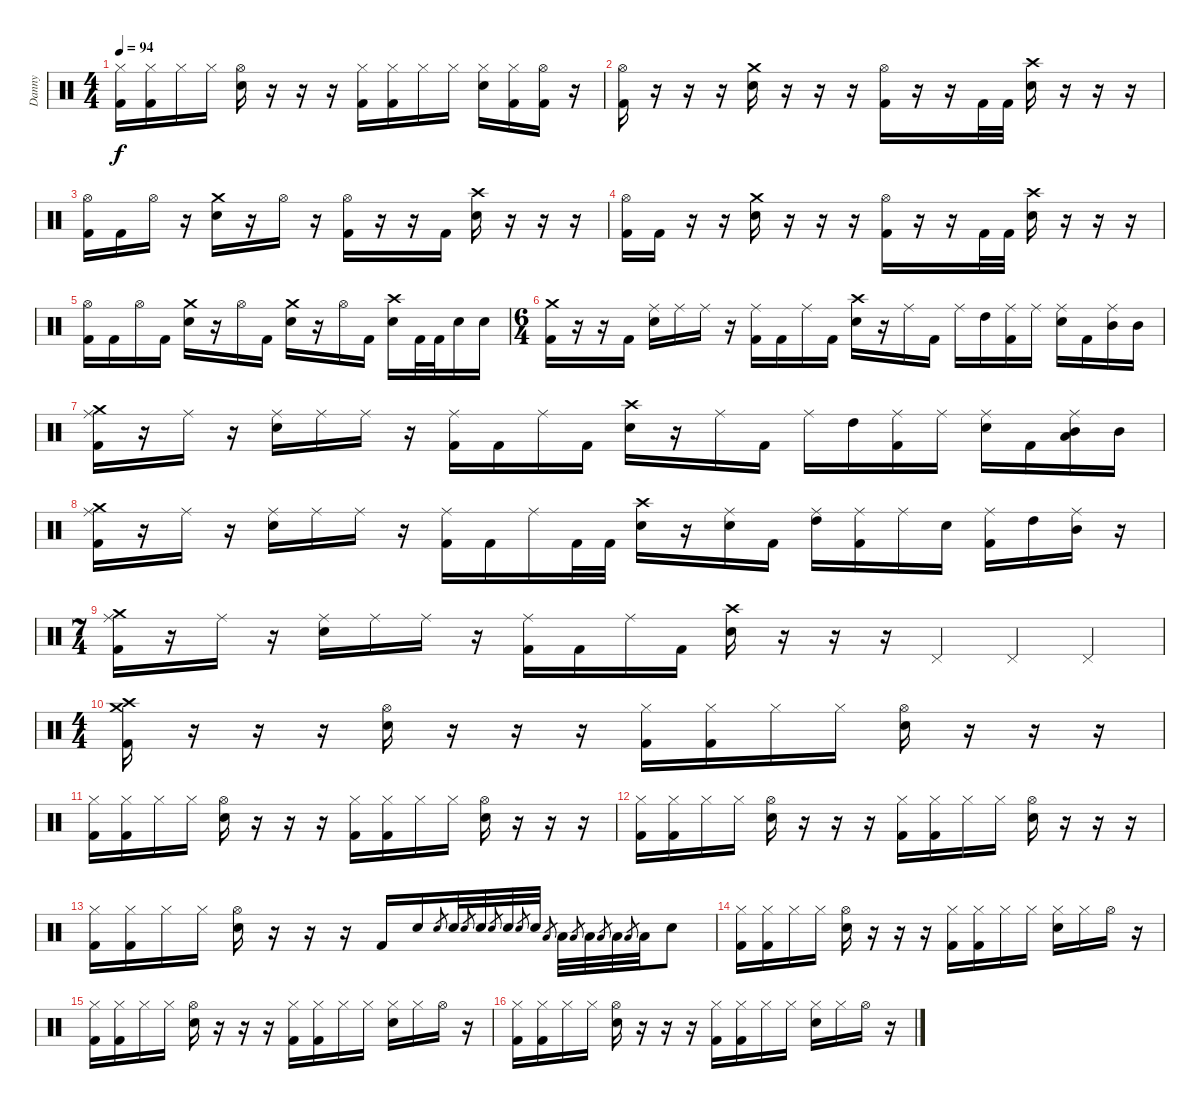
\track ("Danny" "Danny") {instrument percussion}
\staff {score}
\articulation defaults
\ts (4 4)
\tempo 94
\clef neutral
\ks c
("Hi-Hat (closed)" "Kick (hit) 2").16{dy f} ("Hi-Hat (closed)" "Kick (hit) 2").16 "Hi-Hat (closed)".16 "Hi-Hat (closed)".16 ("Hi-Hat (open)" "Electric Snare (hit)").16 r.16 r.16 r.16 ("Hi-Hat (closed)" "Kick (hit) 2").16 ("Hi-Hat (closed)" "Kick (hit) 2").16 "Hi-Hat (closed)".16 "Hi-Hat (closed)".16 ("Hi-Hat (closed)" "Electric Snare (hit)").16 ("Hi-Hat (closed)" "Kick (hit) 2").16 ("Hi-Hat (open)" "Kick (hit) 2").16 r.16 |
("Hi-Hat (open)" "Kick (hit) 2").16 r.16 r.16 r.16 ("Crash medium (hit)" "Electric Snare (hit)").16 r.16 r.16 r.16 ("Hi-Hat (open)" "Kick (hit) 2").16 r.16 r.16 "Kick (hit) 2".32 "Kick (hit) 2".32 ("Crash high (hit)" "Electric Snare (hit)").16 r.16 r.16 r.16 |
("Hi-Hat (open)" "Kick (hit) 2").16 "Kick (hit) 2".16 "Hi-Hat (open)".16 r.16 ("Crash medium (hit)" "Electric Snare (hit)").16 r.16 "Hi-Hat (open)".16 r.16 ("Hi-Hat (open)" "Kick (hit) 2").16 r.16 r.16 "Kick (hit) 2".16 ("Crash high (hit)" "Electric Snare (hit)").16 r.16 r.16 r.16 |
("Hi-Hat (open)" "Kick (hit) 2").16 "Kick (hit) 2".16 r.16 r.16 ("Crash medium (hit)" "Electric Snare (hit)").16 r.16 r.16 r.16 ("Hi-Hat (open)" "Kick (hit) 2").16 r.16 r.16 "Kick (hit) 2".32 "Kick (hit) 2".32 ("Crash high (hit)" "Electric Snare (hit)").16 r.16 r.16 r.16 |
("Hi-Hat (open)" "Kick (hit) 2").16 "Kick (hit) 2".16 "Hi-Hat (open)".16 "Kick (hit) 2".16 ("Crash medium (hit)" "Electric Snare (hit)").16 r.16 "Hi-Hat (open)".16 "Kick (hit) 2".16 ("Crash medium (hit)" "Electric Snare (hit)").16 r.16 "Hi-Hat (open)".16 "Kick (hit) 2".16 ("Crash high (hit)" "Electric Snare (hit)").16 "Kick (hit) 2".32 "Kick (hit) 2".32 "Electric Snare (hit)".16 "Electric Snare (hit)".16 |
\ts (6 4)
("Crash medium (hit)" "Kick (hit) 2").16 r.16 r.16 "Kick (hit) 2".16 ("Ride (middle)" "Electric Snare (hit)").16 "Ride (middle)".16 "Ride (middle)".16 r.16 ("Ride (middle)" "Kick (hit) 2").16 "Kick (hit) 2".16 "Ride (middle)".16 "Kick (hit) 2".16 ("Crash high (hit)" "Electric Snare (hit)").16 r.16 "Ride (middle)".16 "Kick (hit) 2".16 "Ride (middle)".16 "High Tom (hit)".16 ("Ride (middle)" "Kick (hit) 2").16 "Ride (middle)".16 ("Ride (middle)" "Electric Snare (hit)").16 "Kick (hit) 2".16 ("Ride (middle)" "Mid Tom (hit)").16 "Mid Tom (hit)".16 |
("Crash medium (hit)" "Ride (middle)" "Kick (hit) 2").16 r.16 "Ride (middle)".16 r.16 ("Ride (middle)" "Electric Snare (hit)").16 "Ride (middle)".16 "Ride (middle)".16 r.16 ("Ride (middle)" "Kick (hit) 2").16 "Kick (hit) 2".16 "Ride (middle)".16 "Kick (hit) 2".16 ("Crash high (hit)" "Electric Snare (hit)").16 r.16 "Ride (middle)".16 "Kick (hit) 2".16 "Ride (middle)".16 "High Tom (hit)".16 ("Ride (middle)" "Kick (hit) 2").16 "Ride (middle)".16 ("Ride (middle)" "Electric Snare (hit)").16 "Kick (hit) 2".16 ("Ride (middle)" "Low Floor Tom (hit)" "Mid Tom (hit)").16 "Mid Tom (hit)".16 |
("Crash medium (hit)" "Ride (middle)" "Kick (hit) 2").16 r.16 "Ride (middle)".16 r.16 ("Ride (middle)" "Electric Snare (hit)").16 "Ride (middle)".16 "Ride (middle)".16 r.16 ("Ride (middle)" "Kick (hit) 2").16 "Kick (hit) 2".16 "Ride (middle)".16 "Kick (hit) 2".32 "Kick (hit) 2".32 ("Crash high (hit)" "Electric Snare (hit)").16 r.16 ("Ride (middle)" "Electric Snare (hit)").16 "Kick (hit) 2".16 ("Ride (middle)" "High Tom (hit)").16 ("Ride (middle)" "Kick (hit) 2").16 "Ride (middle)".16 "Electric Snare (hit)".16 ("Ride (middle)" "Kick (hit) 2").16 "High Tom (hit)".16 ("Ride (middle)" "Mid Tom (hit)").16 r.16 |
\ts (7 4)
("Crash medium (hit)" "Ride (middle)" "Kick (hit) 2").16 r.16 "Ride (middle)".16 r.16 ("Ride (middle)" "Electric Snare (hit)").16 "Ride (middle)".16 "Ride (middle)".16 r.16 ("Ride (middle)" "Kick (hit) 2").16 "Kick (hit) 2".16 "Ride (middle)".16 "Kick (hit) 2".16 ("Crash high (hit)" "Electric Snare (hit)").16 r.16 r.16 r.16 "Pedal Hi-Hat (hit)".4 "Pedal Hi-Hat (hit)".4 "Pedal Hi-Hat (hit)".4 |
\ts (4 4)
("Crash medium (hit)" "Crash high (hit)" "Kick (hit) 2").16 r.16 r.16 r.16 ("Hi-Hat (open)" "Electric Snare (hit)").16 r.16 r.16 r.16 ("Hi-Hat (closed)" "Kick (hit) 2").16 ("Hi-Hat (closed)" "Kick (hit) 2").16 "Hi-Hat (closed)".16 "Hi-Hat (closed)".16 ("Hi-Hat (open)" "Electric Snare (hit)").16 r.16 r.16 r.16 |
("Hi-Hat (closed)" "Kick (hit) 2").16 ("Hi-Hat (closed)" "Kick (hit) 2").16 "Hi-Hat (closed)".16 "Hi-Hat (closed)".16 ("Hi-Hat (open)" "Electric Snare (hit)").16 r.16 r.16 r.16 ("Hi-Hat (closed)" "Kick (hit) 2").16 ("Hi-Hat (closed)" "Kick (hit) 2").16 "Hi-Hat (closed)".16 "Hi-Hat (closed)".16 ("Hi-Hat (open)" "Electric Snare (hit)").16 r.16 r.16 r.16 |
("Hi-Hat (closed)" "Kick (hit) 2").16 ("Hi-Hat (closed)" "Kick (hit) 2").16 "Hi-Hat (closed)".16 "Hi-Hat (closed)".16 ("Hi-Hat (open)" "Electric Snare (hit)").16 r.16 r.16 r.16 ("Hi-Hat (closed)" "Kick (hit) 2").16 ("Hi-Hat (closed)" "Kick (hit) 2").16 "Hi-Hat (closed)".16 "Hi-Hat (closed)".16 ("Hi-Hat (open)" "Electric Snare (hit)").16 r.16 r.16 r.16 |
("Hi-Hat (closed)" "Kick (hit) 2").16 ("Hi-Hat (closed)" "Kick (hit) 2").16 "Hi-Hat (closed)".16 "Hi-Hat (closed)".16 ("Hi-Hat (open)" "Electric Snare (hit)").16 r.16 r.16 r.16 "Kick (hit) 2".16 "Electric Snare (hit)".16 "Electric Snare (hit)".8{gr} "Electric Snare (hit)".32 "Electric Snare (hit)".8{gr} "Electric Snare (hit)".32 "Electric Snare (hit)".8{gr} "Electric Snare (hit)".32 "Electric Snare (hit)".8{gr} "Electric Snare (hit)".32 "Low Tom (hit)".8{gr} "Low Tom (hit)".32 "Low Tom (hit)".8{gr} "Low Tom (hit)".32 "Low Tom (hit)".8{gr} "Low Tom (hit)".32 "Low Tom (hit)".8{gr} "Low Tom (hit)".32 "Electric Snare (hit)".8 |
("Hi-Hat (closed)" "Kick (hit) 2").16 ("Hi-Hat (closed)" "Kick (hit) 2").16 "Hi-Hat (closed)".16 "Hi-Hat (closed)".16 ("Hi-Hat (open)" "Electric Snare (hit)").16 r.16 r.16 r.16 ("Hi-Hat (closed)" "Kick (hit) 2").16 ("Hi-Hat (closed)" "Kick (hit) 2").16 "Hi-Hat (closed)".16 "Hi-Hat (closed)".16 ("Hi-Hat (closed)" "Electric Snare (hit)").16 "Hi-Hat (closed)".16 "Hi-Hat (open)".16 r.16 |
("Hi-Hat (closed)" "Kick (hit) 2").16 ("Hi-Hat (closed)" "Kick (hit) 2").16 "Hi-Hat (closed)".16 "Hi-Hat (closed)".16 ("Hi-Hat (open)" "Electric Snare (hit)").16 r.16 r.16 r.16 ("Hi-Hat (closed)" "Kick (hit) 2").16 ("Hi-Hat (closed)" "Kick (hit) 2").16 "Hi-Hat (closed)".16 "Hi-Hat (closed)".16 ("Hi-Hat (closed)" "Electric Snare (hit)").16 "Hi-Hat (closed)".16 "Hi-Hat (open)".16 r.16 |
("Hi-Hat (closed)" "Kick (hit) 2").16 ("Hi-Hat (closed)" "Kick (hit) 2").16 "Hi-Hat (closed)".16 "Hi-Hat (closed)".16 ("Hi-Hat (open)" "Electric Snare (hit)").16 r.16 r.16 r.16 ("Hi-Hat (closed)" "Kick (hit) 2").16 ("Hi-Hat (closed)" "Kick (hit) 2").16 "Hi-Hat (closed)".16 "Hi-Hat (closed)".16 ("Hi-Hat (closed)" "Electric Snare (hit)").16 "Hi-Hat (closed)".16 "Hi-Hat (open)".16 r.16
